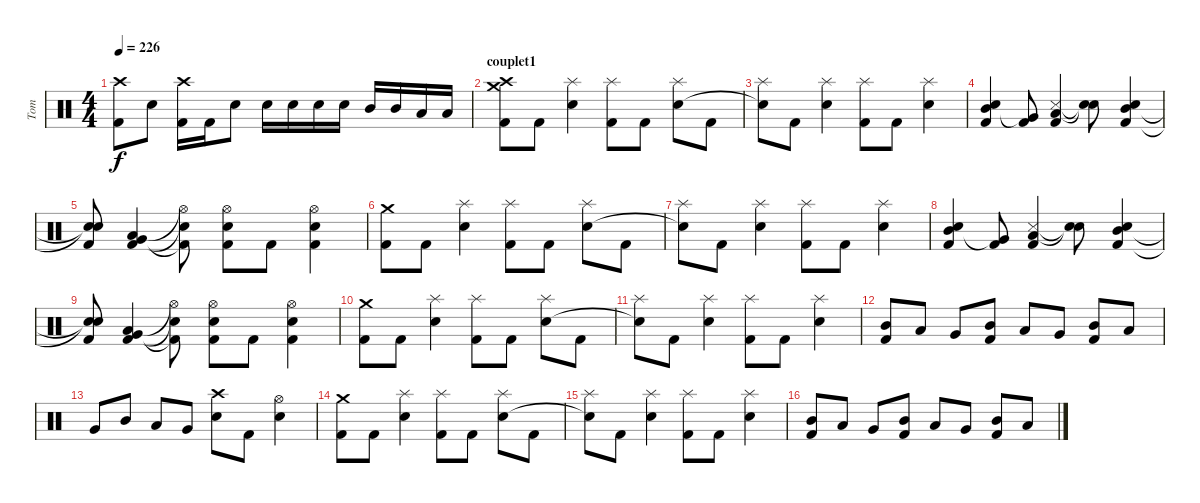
\track ("Tom" "Tom") {instrument percussion}
\staff {score}
\articulation defaults
\ts (4 4)
\tempo 226
\clef neutral
\ks c
("Crash high (hit)" "Kick (hit) 2").8{dy f} "Electric Snare (hit)".8 ("Crash high (hit)" "Kick (hit) 2").16 "Kick (hit) 2".16 "Electric Snare (hit)".8 "Electric Snare (hit)".16 "Electric Snare (hit)".16 "Electric Snare (hit)".16 "Electric Snare (hit)".16 "Mid Tom (hit)".16 "Mid Tom (hit)".16 "Low Tom (hit)".16 "Low Tom (hit)".16 |
\section ("" "couplet1")
("Crash high (hit)" "Crash medium (hit)" "Kick (hit) 2").8 "Kick (hit) 2".8 ("Splash (hit)" "Electric Snare (hit)").4 ("Splash (hit)" "Kick (hit) 2").8 "Kick (hit) 2".8 ("Splash (hit)" "Electric Snare (hit)").8 "Kick (hit) 2".8 |
("Splash (hit)" "Snare (hit)"{t}).8 "Kick (hit) 2".8 ("Splash (hit)" "Electric Snare (hit)").4 ("Splash (hit)" "Kick (hit) 2").8 "Kick (hit) 2".8 ("Splash (hit)" "Electric Snare (hit)").4 |
("Mid Tom (hit)" "Electric Snare (hit)" "Kick (hit) 2").4 ("Very Low Tom (hit)"{t} "Kick (hit) 2").8 ("Low Tom (hit)" "Snare (side stick) 3" "Kick (hit) 2").4 ("Snare (hit)"{t} "Snare (hit)"{t}).8 ("Mid Tom (hit)" "Electric Snare (hit)" "Kick (hit) 2").4 |
("Snare (hit)"{t} "Kick (hit) 2" "Snare (hit)"{t}).8 ("Very Low Tom (hit)" "Low Tom (hit)" "Kick (hit) 2").4 ("Kick (hit) 2"{t} "Hi-Hat (open)"{t} "Electric Snare (hit)"{t}).8 ("Kick (hit) 2" "Hi-Hat (open)" "Electric Snare (hit)").8 "Kick (hit) 2".8 ("Kick (hit) 2" "Hi-Hat (open)" "Electric Snare (hit)").4 |
("Crash medium (hit)" "Kick (hit) 2").8 "Kick (hit) 2".8 ("Splash (hit)" "Electric Snare (hit)").4 ("Splash (hit)" "Kick (hit) 2").8 "Kick (hit) 2".8 ("Splash (hit)" "Electric Snare (hit)").8 "Kick (hit) 2".8 |
("Splash (hit)" "Snare (hit)"{t}).8 "Kick (hit) 2".8 ("Splash (hit)" "Electric Snare (hit)").4 ("Splash (hit)" "Kick (hit) 2").8 "Kick (hit) 2".8 ("Splash (hit)" "Electric Snare (hit)").4 |
("Mid Tom (hit)" "Electric Snare (hit)" "Kick (hit) 2").4 ("Very Low Tom (hit)"{t} "Kick (hit) 2").8 ("Low Tom (hit)" "Snare (side stick) 3" "Kick (hit) 2").4 ("Snare (hit)"{t} "Snare (hit)"{t}).8 ("Mid Tom (hit)" "Electric Snare (hit)" "Kick (hit) 2").4 |
("Snare (hit)"{t} "Kick (hit) 2" "Snare (hit)"{t}).8 ("Very Low Tom (hit)" "Low Tom (hit)" "Kick (hit) 2").4 ("Kick (hit) 2"{t} "Hi-Hat (open)"{t} "Electric Snare (hit)"{t}).8 ("Kick (hit) 2" "Hi-Hat (open)" "Electric Snare (hit)").8 "Kick (hit) 2".8 ("Kick (hit) 2" "Hi-Hat (open)" "Electric Snare (hit)").4 |
("Crash medium (hit)" "Kick (hit) 2").8 "Kick (hit) 2".8 ("Splash (hit)" "Electric Snare (hit)").4 ("Splash (hit)" "Kick (hit) 2").8 "Kick (hit) 2".8 ("Splash (hit)" "Electric Snare (hit)").8 "Kick (hit) 2".8 |
("Splash (hit)" "Snare (hit)"{t}).8 "Kick (hit) 2".8 ("Splash (hit)" "Electric Snare (hit)").4 ("Splash (hit)" "Kick (hit) 2").8 "Kick (hit) 2".8 ("Splash (hit)" "Electric Snare (hit)").4 |
("Mid Tom (hit)" "Kick (hit) 2").8 "Low Tom (hit)".8 "Very Low Tom (hit)".8 ("Mid Tom (hit)" "Kick (hit) 2").8 "Low Tom (hit)".8 "Very Low Tom (hit)".8 ("Mid Tom (hit)" "Kick (hit) 2").8 "Low Tom (hit)".8 |
"Very Low Tom (hit)".8 "Mid Tom (hit)".8 "Low Tom (hit)".8 "Very Low Tom (hit)".8 ("Electric Snare (hit)" "Crash high (hit)").8 "Kick (hit) 2".8 ("Electric Snare (hit)" "Hi-Hat (open)").4 |
("Crash medium (hit)" "Kick (hit) 2").8 "Kick (hit) 2".8 ("Splash (hit)" "Electric Snare (hit)").4 ("Splash (hit)" "Kick (hit) 2").8 "Kick (hit) 2".8 ("Splash (hit)" "Electric Snare (hit)").8 "Kick (hit) 2".8 |
("Splash (hit)" "Snare (hit)"{t}).8 "Kick (hit) 2".8 ("Splash (hit)" "Electric Snare (hit)").4 ("Splash (hit)" "Kick (hit) 2").8 "Kick (hit) 2".8 ("Splash (hit)" "Electric Snare (hit)").4 |
("Mid Tom (hit)" "Kick (hit) 2").8 "Low Tom (hit)".8 "Very Low Tom (hit)".8 ("Mid Tom (hit)" "Kick (hit) 2").8 "Low Tom (hit)".8 "Very Low Tom (hit)".8 ("Mid Tom (hit)" "Kick (hit) 2").8 "Low Tom (hit)".8
